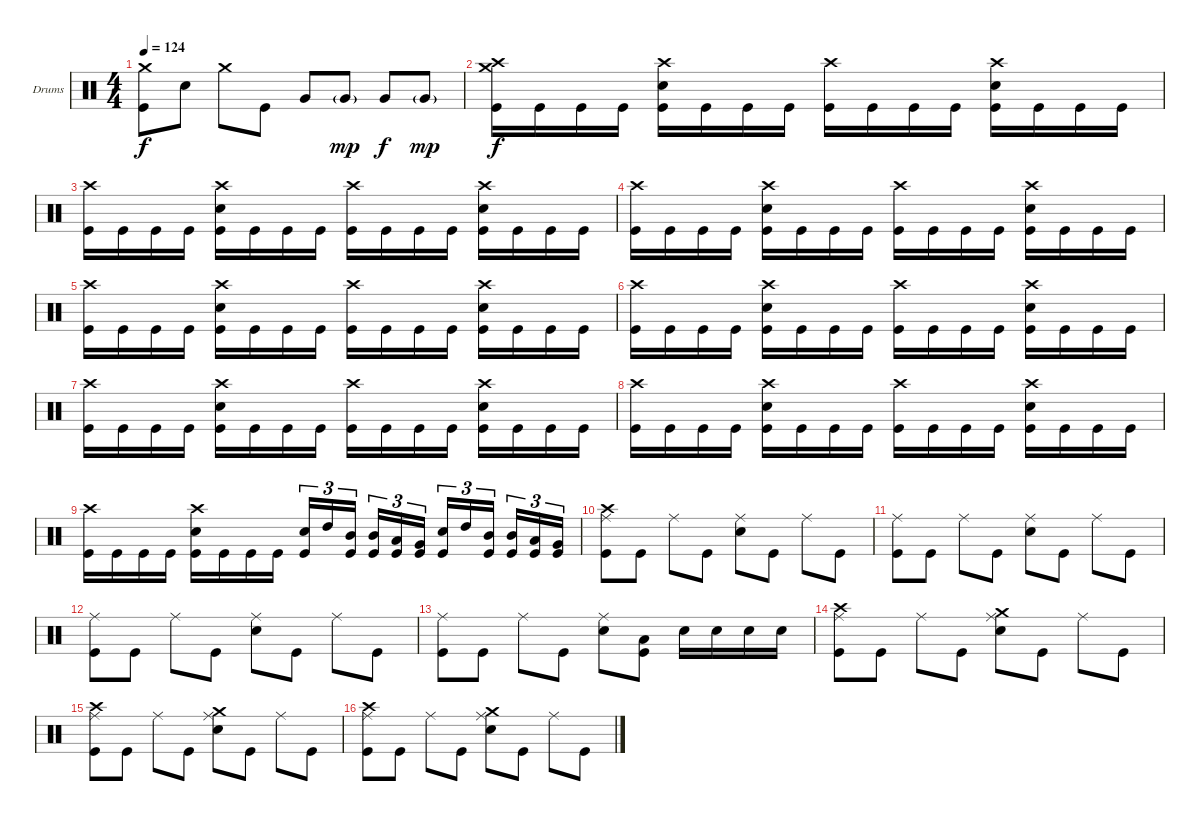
\defaultSystemsLayout 4
\bracketExtendMode groupsimilarinstruments
\firstSystemTrackNameOrientation horizontal
\otherSystemsTrackNameOrientation horizontal
\track ("Drumkit" "Drums") {instrument percussion}
\staff {score}
\articulation defaults
\ts (4 4)
\tempo 124
\clef neutral
\ks c
("Crash medium (hit)" "Kick (hit)").8{dy f} "Snare (hit) 2".8 "Crash medium (hit)".8 "Kick (hit)".8 "Very Low Tom (hit)".8 "Very Low Tom (hit)"{g}.8{dy mp} "Very Low Tom (hit)".8{dy f} "Very Low Tom (hit)"{g}.8{dy mp} |
("Crash high (hit)" "Crash medium (hit)" "Kick (hit)").16{dy f} "Kick (hit)".16 "Kick (hit)".16 "Kick (hit)".16 ("Crash high (hit)" "Snare (hit) 2" "Kick (hit)").16 "Kick (hit)".16 "Kick (hit)".16 "Kick (hit)".16 ("Crash high (hit)" "Kick (hit)").16 "Kick (hit)".16 "Kick (hit)".16 "Kick (hit)".16 ("Crash high (hit)" "Snare (hit) 2" "Kick (hit)").16 "Kick (hit)".16 "Kick (hit)".16 "Kick (hit)".16 |
("Crash high (hit)" "Kick (hit)").16 "Kick (hit)".16 "Kick (hit)".16 "Kick (hit)".16 ("Crash high (hit)" "Snare (hit) 2" "Kick (hit)").16 "Kick (hit)".16 "Kick (hit)".16 "Kick (hit)".16 ("Crash high (hit)" "Kick (hit)").16 "Kick (hit)".16 "Kick (hit)".16 "Kick (hit)".16 ("Crash high (hit)" "Snare (hit) 2" "Kick (hit)").16 "Kick (hit)".16 "Kick (hit)".16 "Kick (hit)".16 |
("Crash high (hit)" "Kick (hit)").16 "Kick (hit)".16 "Kick (hit)".16 "Kick (hit)".16 ("Crash high (hit)" "Snare (hit) 2" "Kick (hit)").16 "Kick (hit)".16 "Kick (hit)".16 "Kick (hit)".16 ("Crash high (hit)" "Kick (hit)").16 "Kick (hit)".16 "Kick (hit)".16 "Kick (hit)".16 ("Crash high (hit)" "Snare (hit) 2" "Kick (hit)").16 "Kick (hit)".16 "Kick (hit)".16 "Kick (hit)".16 |
("Crash high (hit)" "Kick (hit)").16 "Kick (hit)".16 "Kick (hit)".16 "Kick (hit)".16 ("Crash high (hit)" "Snare (hit) 2" "Kick (hit)").16 "Kick (hit)".16 "Kick (hit)".16 "Kick (hit)".16 ("Crash high (hit)" "Kick (hit)").16 "Kick (hit)".16 "Kick (hit)".16 "Kick (hit)".16 ("Crash high (hit)" "Snare (hit) 2" "Kick (hit)").16 "Kick (hit)".16 "Kick (hit)".16 "Kick (hit)".16 |
("Crash high (hit)" "Kick (hit)").16 "Kick (hit)".16 "Kick (hit)".16 "Kick (hit)".16 ("Crash high (hit)" "Snare (hit) 2" "Kick (hit)").16 "Kick (hit)".16 "Kick (hit)".16 "Kick (hit)".16 ("Crash high (hit)" "Kick (hit)").16 "Kick (hit)".16 "Kick (hit)".16 "Kick (hit)".16 ("Crash high (hit)" "Snare (hit) 2" "Kick (hit)").16 "Kick (hit)".16 "Kick (hit)".16 "Kick (hit)".16 |
("Crash high (hit)" "Kick (hit)").16 "Kick (hit)".16 "Kick (hit)".16 "Kick (hit)".16 ("Crash high (hit)" "Snare (hit) 2" "Kick (hit)").16 "Kick (hit)".16 "Kick (hit)".16 "Kick (hit)".16 ("Crash high (hit)" "Kick (hit)").16 "Kick (hit)".16 "Kick (hit)".16 "Kick (hit)".16 ("Crash high (hit)" "Snare (hit) 2" "Kick (hit)").16 "Kick (hit)".16 "Kick (hit)".16 "Kick (hit)".16 |
("Crash high (hit)" "Kick (hit)").16 "Kick (hit)".16 "Kick (hit)".16 "Kick (hit)".16 ("Crash high (hit)" "Snare (hit) 2" "Kick (hit)").16 "Kick (hit)".16 "Kick (hit)".16 "Kick (hit)".16 ("Crash high (hit)" "Kick (hit)").16 "Kick (hit)".16 "Kick (hit)".16 "Kick (hit)".16 ("Crash high (hit)" "Snare (hit) 2" "Kick (hit)").16 "Kick (hit)".16 "Kick (hit)".16 "Kick (hit)".16 |
("Crash high (hit)" "Kick (hit)").16 "Kick (hit)".16 "Kick (hit)".16 "Kick (hit)".16 ("Crash high (hit)" "Snare (hit) 2" "Kick (hit)").16 "Kick (hit)".16 "Kick (hit)".16 "Kick (hit)".16 ("Snare (hit) 2" "Kick (hit)").16{tu (3 2)} "High Tom (hit)".16{tu (3 2)} ("Mid Tom (hit)" "Kick (hit)").16{tu (3 2)} ("Mid Tom (hit)" "Kick (hit)").16{tu (3 2)} ("Low Tom (hit)" "Kick (hit)").16{tu (3 2)} ("Very Low Tom (hit)" "Kick (hit)").16{tu (3 2)} ("Snare (hit) 2" "Kick (hit)").16{tu (3 2)} "High Tom (hit)".16{tu (3 2)} ("Mid Tom (hit)" "Kick (hit)").16{tu (3 2)} ("Mid Tom (hit)" "Kick (hit)").16{tu (3 2)} ("Low Tom (hit)" "Kick (hit)").16{tu (3 2)} ("Very Low Tom (hit)" "Kick (hit)").16{tu (3 2)} |
("Ride (middle)" "Crash high (hit)" "Kick (hit)").8 "Kick (hit)".8 "Ride (middle)".8 "Kick (hit)".8 ("Ride (middle)" "Snare (hit) 2").8 "Kick (hit)".8 "Ride (middle)".8 "Kick (hit)".8 |
("Ride (middle)" "Kick (hit)").8 "Kick (hit)".8 "Ride (middle)".8 "Kick (hit)".8 ("Ride (middle)" "Snare (hit) 2").8 "Kick (hit)".8 "Ride (middle)".8 "Kick (hit)".8 |
("Ride (middle)" "Kick (hit)").8 "Kick (hit)".8 "Ride (middle)".8 "Kick (hit)".8 ("Ride (middle)" "Snare (hit) 2").8 "Kick (hit)".8 "Ride (middle)".8 "Kick (hit)".8 |
("Ride (middle)" "Kick (hit)").8 "Kick (hit)".8 "Ride (middle)".8 "Kick (hit)".8 ("Ride (middle)" "Snare (hit) 2").8 ("Low Tom (hit)" "Kick (hit)").8 "Snare (hit) 2".16 "Snare (hit) 2".16 "Snare (hit) 2".16 "Snare (hit) 2".16 |
("Ride (middle)" "Crash high (hit)" "Kick (hit)").8 "Kick (hit)".8 "Ride (middle)".8 "Kick (hit)".8 ("Ride (middle)" "Crash medium (hit)" "Snare (hit) 2").8 "Kick (hit)".8 "Ride (middle)".8 "Kick (hit)".8 |
("Ride (middle)" "Crash high (hit)" "Kick (hit)").8 "Kick (hit)".8 "Ride (middle)".8 "Kick (hit)".8 ("Ride (middle)" "Crash medium (hit)" "Snare (hit) 2").8 "Kick (hit)".8 "Ride (middle)".8 "Kick (hit)".8 |
("Ride (middle)" "Crash high (hit)" "Kick (hit)").8 "Kick (hit)".8 "Ride (middle)".8 "Kick (hit)".8 ("Ride (middle)" "Crash medium (hit)" "Snare (hit) 2").8 "Kick (hit)".8 "Ride (middle)".8 "Kick (hit)".8
